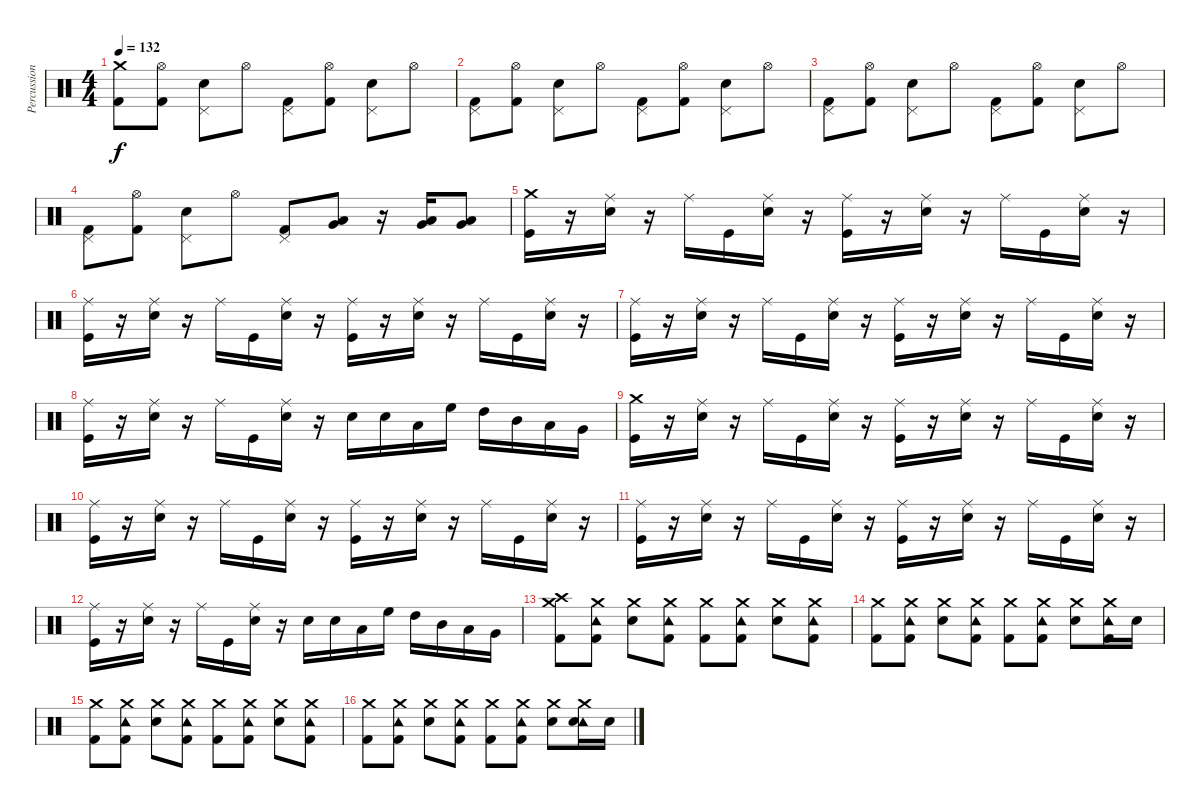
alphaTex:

\track ("Percussion" "Percussion") {instrument percussion}
\staff {score}
\articulation defaults
\ts (4 4)
\tempo 132
\clef neutral
\ks c
("Crash medium (hit)" "Kick (hit) 2").8{dy f} ("Hi-Hat (open)" "Kick (hit) 2").8 ("Pedal Hi-Hat (hit)" "Electric Snare (hit)").8 "Hi-Hat (open)".8 ("Pedal Hi-Hat (hit)" "Kick (hit) 2").8 ("Hi-Hat (open)" "Kick (hit) 2").8 ("Pedal Hi-Hat (hit)" "Electric Snare (hit)").8 "Hi-Hat (open)".8 |
("Pedal Hi-Hat (hit)" "Kick (hit) 2").8 ("Hi-Hat (open)" "Kick (hit) 2").8 ("Pedal Hi-Hat (hit)" "Electric Snare (hit)").8 "Hi-Hat (open)".8 ("Pedal Hi-Hat (hit)" "Kick (hit) 2").8 ("Hi-Hat (open)" "Kick (hit) 2").8 ("Pedal Hi-Hat (hit)" "Electric Snare (hit)").8 "Hi-Hat (open)".8 |
("Pedal Hi-Hat (hit)" "Kick (hit) 2").8 ("Hi-Hat (open)" "Kick (hit) 2").8 ("Pedal Hi-Hat (hit)" "Electric Snare (hit)").8 "Hi-Hat (open)".8 ("Pedal Hi-Hat (hit)" "Kick (hit) 2").8 ("Hi-Hat (open)" "Kick (hit) 2").8 ("Pedal Hi-Hat (hit)" "Electric Snare (hit)").8 "Hi-Hat (open)".8 |
("Pedal Hi-Hat (hit)" "Kick (hit) 2").8 ("Hi-Hat (open)" "Kick (hit) 2").8 ("Pedal Hi-Hat (hit)" "Electric Snare (hit)").8 "Hi-Hat (open)".8 ("Pedal Hi-Hat (hit)" "Kick (hit) 2").8 ("Low Tom (hit)" "Very Low Tom (hit)").8 r.16 ("Low Tom (hit)" "Very Low Tom (hit)").16 ("Low Tom (hit)" "Very Low Tom (hit)").8 |
("Crash medium (hit)" "Kick (hit)").16 r.16 ("Ride (middle)" "Electric Snare (hit)").16 r.16 "Ride (middle)".16 "Kick (hit)".16 ("Ride (middle)" "Electric Snare (hit)").16 r.16 ("Ride (middle)" "Kick (hit)").16 r.16 ("Ride (middle)" "Electric Snare (hit)").16 r.16 "Ride (middle)".16 "Kick (hit)".16 ("Ride (middle)" "Electric Snare (hit)").16 r.16 |
("Ride (middle)" "Kick (hit)").16 r.16 ("Ride (middle)" "Electric Snare (hit)").16 r.16 "Ride (middle)".16 "Kick (hit)".16 ("Ride (middle)" "Electric Snare (hit)").16 r.16 ("Ride (middle)" "Kick (hit)").16 r.16 ("Ride (middle)" "Electric Snare (hit)").16 r.16 "Ride (middle)".16 "Kick (hit)".16 ("Ride (middle)" "Electric Snare (hit)").16 r.16 |
("Ride (middle)" "Kick (hit)").16 r.16 ("Ride (middle)" "Electric Snare (hit)").16 r.16 "Ride (middle)".16 "Kick (hit)".16 ("Ride (middle)" "Electric Snare (hit)").16 r.16 ("Ride (middle)" "Kick (hit)").16 r.16 ("Ride (middle)" "Electric Snare (hit)").16 r.16 "Ride (middle)".16 "Kick (hit)".16 ("Ride (middle)" "Electric Snare (hit)").16 r.16 |
("Ride (middle)" "Kick (hit)").16 r.16 ("Ride (middle)" "Electric Snare (hit)").16 r.16 "Ride (middle)".16 "Kick (hit)".16 ("Ride (middle)" "Electric Snare (hit)").16 r.16 "Electric Snare (hit)".16 "Electric Snare (hit)".16 "Low Floor Tom (hit)".16 "High Floor Tom (hit)".16 "High Tom (hit)".16 "Mid Tom (hit)".16 "Low Tom (hit)".16 "Very Low Tom (hit)".16 |
("Crash medium (hit)" "Kick (hit)").16 r.16 ("Ride (middle)" "Electric Snare (hit)").16 r.16 "Ride (middle)".16 "Kick (hit)".16 ("Ride (middle)" "Electric Snare (hit)").16 r.16 ("Ride (middle)" "Kick (hit)").16 r.16 ("Ride (middle)" "Electric Snare (hit)").16 r.16 "Ride (middle)".16 "Kick (hit)".16 ("Ride (middle)" "Electric Snare (hit)").16 r.16 |
("Ride (middle)" "Kick (hit)").16 r.16 ("Ride (middle)" "Electric Snare (hit)").16 r.16 "Ride (middle)".16 "Kick (hit)".16 ("Ride (middle)" "Electric Snare (hit)").16 r.16 ("Ride (middle)" "Kick (hit)").16 r.16 ("Ride (middle)" "Electric Snare (hit)").16 r.16 "Ride (middle)".16 "Kick (hit)".16 ("Ride (middle)" "Electric Snare (hit)").16 r.16 |
("Ride (middle)" "Kick (hit)").16 r.16 ("Ride (middle)" "Electric Snare (hit)").16 r.16 "Ride (middle)".16 "Kick (hit)".16 ("Ride (middle)" "Electric Snare (hit)").16 r.16 ("Ride (middle)" "Kick (hit)").16 r.16 ("Ride (middle)" "Electric Snare (hit)").16 r.16 "Ride (middle)".16 "Kick (hit)".16 ("Ride (middle)" "Electric Snare (hit)").16 r.16 |
("Ride (middle)" "Kick (hit)").16 r.16 ("Ride (middle)" "Electric Snare (hit)").16 r.16 "Ride (middle)".16 "Kick (hit)".16 ("Ride (middle)" "Electric Snare (hit)").16 r.16 "Electric Snare (hit)".16 "Electric Snare (hit)".16 "Low Floor Tom (hit)".16 "High Floor Tom (hit)".16 "High Tom (hit)".16 "Mid Tom (hit)".16 "Low Tom (hit)".16 "Very Low Tom (hit)".16 |
("Crash medium (hit)" "Crash high (hit)" "Kick (hit) 2").8{volume 15} ("Crash medium (hit)" "Tambourine (hit)" "Kick (hit) 2").8 ("Crash medium (hit)" "Electric Snare (hit)").8 ("Crash medium (hit)" "Tambourine (hit)" "Kick (hit) 2").8 ("Crash medium (hit)" "Kick (hit) 2").8 ("Crash medium (hit)" "Tambourine (hit)" "Kick (hit) 2").8 ("Crash medium (hit)" "Electric Snare (hit)").8 ("Crash medium (hit)" "Tambourine (hit)" "Kick (hit) 2").8 |
("Crash medium (hit)" "Kick (hit) 2").8 ("Crash medium (hit)" "Tambourine (hit)" "Kick (hit) 2").8 ("Crash medium (hit)" "Electric Snare (hit)").8 ("Crash medium (hit)" "Tambourine (hit)" "Kick (hit) 2").8 ("Crash medium (hit)" "Kick (hit) 2").8 ("Crash medium (hit)" "Tambourine (hit)" "Kick (hit) 2").8 ("Crash medium (hit)" "Electric Snare (hit)").8 ("Crash medium (hit)" "Tambourine (hit)" "Kick (hit) 2").16 "Electric Snare (hit)".16 |
("Crash medium (hit)" "Kick (hit) 2").8 ("Crash medium (hit)" "Tambourine (hit)" "Kick (hit) 2").8 ("Crash medium (hit)" "Electric Snare (hit)").8 ("Crash medium (hit)" "Tambourine (hit)" "Kick (hit) 2").8 ("Crash medium (hit)" "Kick (hit) 2").8 ("Crash medium (hit)" "Tambourine (hit)" "Kick (hit) 2").8 ("Crash medium (hit)" "Electric Snare (hit)").8 ("Crash medium (hit)" "Tambourine (hit)" "Kick (hit) 2").8 |
("Crash medium (hit)" "Kick (hit) 2").8 ("Crash medium (hit)" "Tambourine (hit)" "Kick (hit) 2").8 ("Crash medium (hit)" "Electric Snare (hit)").8 ("Crash medium (hit)" "Tambourine (hit)" "Kick (hit) 2").8 ("Crash medium (hit)" "Kick (hit) 2").8 ("Crash medium (hit)" "Tambourine (hit)" "Kick (hit) 2").8 ("Crash medium (hit)" "Electric Snare (hit)").8 ("Crash medium (hit)" "Tambourine (hit)" "Electric Snare (hit)").16 "Electric Snare (hit)".16
